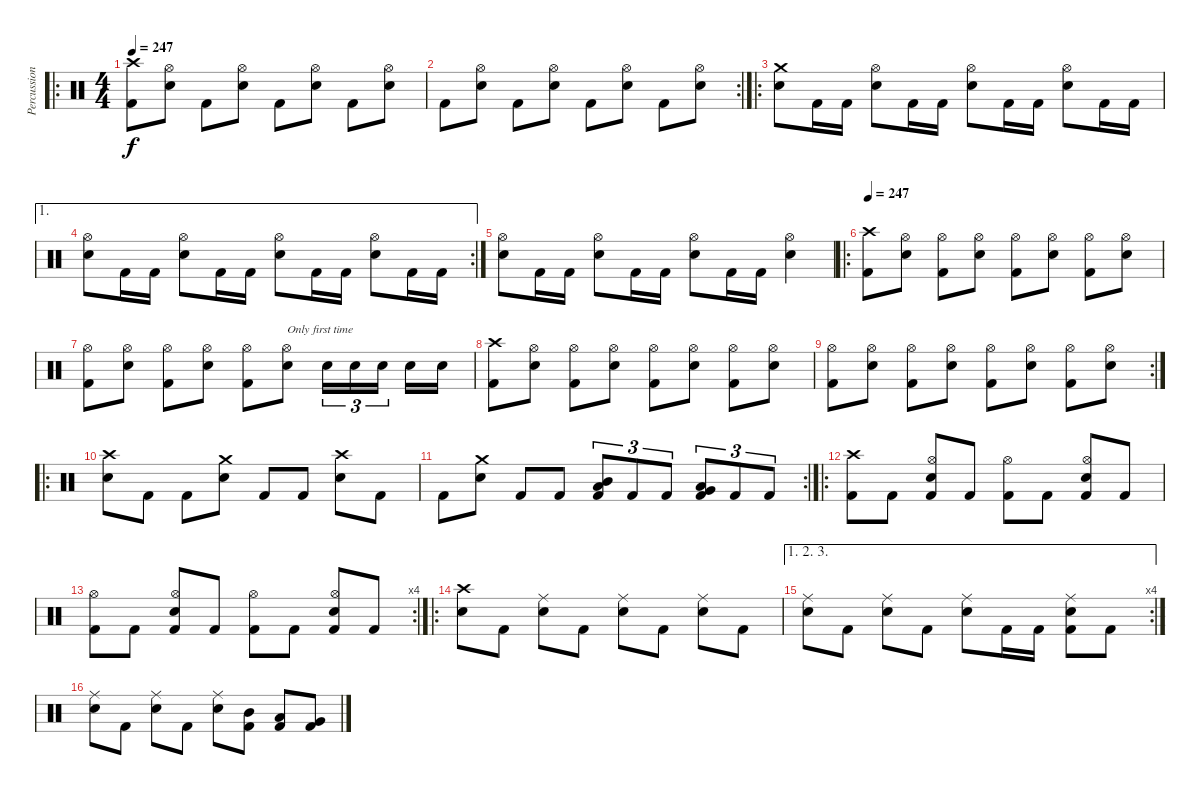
\track ("Percussion" "Percussion") {instrument percussion}
\staff {score}
\articulation defaults
\ro
\ts (4 4)
\tempo 247
\clef neutral
\ks c
("Crash high (hit)" "Kick (hit) 2").8{dy f} ("Hi-Hat (open)" "Snare (hit) 2").8 "Kick (hit) 2".8 ("Hi-Hat (open)" "Snare (hit) 2").8 "Kick (hit) 2".8 ("Hi-Hat (open)" "Snare (hit) 2").8 "Kick (hit) 2".8 ("Hi-Hat (open)" "Snare (hit) 2").8 |
\rc 2 "Kick (hit) 2".8
("Hi-Hat (open)" "Snare (hit) 2").8 "Kick (hit) 2".8 ("Hi-Hat (open)" "Snare (hit) 2").8 "Kick (hit) 2".8 ("Hi-Hat (open)" "Snare (hit) 2").8 "Kick (hit) 2".8 ("Hi-Hat (open)" "Snare (hit) 2").8 |
\ro
("Crash medium (hit)" "Snare (hit) 2").8 "Kick (hit) 2".16 "Kick (hit) 2".16 ("Hi-Hat (open)" "Snare (hit) 2").8 "Kick (hit) 2".16 "Kick (hit) 2".16 ("Hi-Hat (open)" "Snare (hit) 2").8 "Kick (hit) 2".16 "Kick (hit) 2".16 ("Hi-Hat (open)" "Snare (hit) 2").8 "Kick (hit) 2".16 "Kick (hit) 2".16 |
\ae 1
\rc 2
("Hi-Hat (open)" "Snare (hit) 2").8 "Kick (hit) 2".16 "Kick (hit) 2".16 ("Hi-Hat (open)" "Snare (hit) 2").8 "Kick (hit) 2".16 "Kick (hit) 2".16 ("Hi-Hat (open)" "Snare (hit) 2").8 "Kick (hit) 2".16 "Kick (hit) 2".16 ("Hi-Hat (open)" "Snare (hit) 2").8 "Kick (hit) 2".16 "Kick (hit) 2".16 |
("Hi-Hat (open)" "Snare (hit) 2").8 "Kick (hit) 2".16 "Kick (hit) 2".16 ("Hi-Hat (open)" "Snare (hit) 2").8 "Kick (hit) 2".16 "Kick (hit) 2".16 ("Hi-Hat (open)" "Snare (hit) 2").8 "Kick (hit) 2".16 "Kick (hit) 2".16 ("Hi-Hat (open)" "Snare (hit) 2").4 |
\ro
\tempo 247
("Crash high (hit)" "Kick (hit) 2").8 ("Hi-Hat (open)" "Snare (hit) 2").8 ("Hi-Hat (open)" "Kick (hit) 2").8 ("Hi-Hat (open)" "Snare (hit) 2").8 ("Hi-Hat (open)" "Kick (hit) 2").8 ("Hi-Hat (open)" "Snare (hit) 2").8 ("Hi-Hat (open)" "Kick (hit) 2").8 ("Hi-Hat (open)" "Snare (hit) 2").8 |
("Hi-Hat (open)" "Kick (hit) 2").8 ("Hi-Hat (open)" "Snare (hit) 2").8 ("Hi-Hat (open)" "Kick (hit) 2").8 ("Hi-Hat (open)" "Snare (hit) 2").8 ("Hi-Hat (open)" "Kick (hit) 2").8 ("Hi-Hat (open)" "Snare (hit) 2").8{txt "Only first time"} "Snare (hit) 2".16{tu (3 2)} "Snare (hit) 2".16{tu (3 2)} "Snare (hit) 2".16{tu (3 2)} "Snare (hit) 2".16 "Snare (hit) 2".16 |
("Crash high (hit)" "Kick (hit) 2").8 ("Hi-Hat (open)" "Snare (hit) 2").8 ("Hi-Hat (open)" "Kick (hit) 2").8 ("Hi-Hat (open)" "Snare (hit) 2").8 ("Hi-Hat (open)" "Kick (hit) 2").8 ("Hi-Hat (open)" "Snare (hit) 2").8 ("Hi-Hat (open)" "Kick (hit) 2").8 ("Hi-Hat (open)" "Snare (hit) 2").8 |
\rc 2
("Hi-Hat (open)" "Kick (hit) 2").8 ("Hi-Hat (open)" "Snare (hit) 2").8 ("Hi-Hat (open)" "Kick (hit) 2").8 ("Hi-Hat (open)" "Snare (hit) 2").8 ("Hi-Hat (open)" "Kick (hit) 2").8 ("Hi-Hat (open)" "Snare (hit) 2").8 ("Hi-Hat (open)" "Kick (hit) 2").8 ("Hi-Hat (open)" "Snare (hit) 2").8 |
\ro
("Crash high (hit)" "Snare (hit) 2").8 "Kick (hit) 2".8 "Kick (hit) 2".8 ("Crash medium (hit)" "Snare (hit) 2").8 "Kick (hit) 2".8 "Kick (hit) 2".8 ("Crash high (hit)" "Snare (hit) 2").8 "Kick (hit) 2".8 |
\rc 2 "Kick (hit) 2".8
("Crash medium (hit)" "Snare (hit) 2").8 "Kick (hit) 2".8 "Kick (hit) 2".8 ("Low Tom (hit)" "Mid Tom (hit)" "Kick (hit) 2").8{tu (3 2)} "Kick (hit) 2".8{tu (3 2)} "Kick (hit) 2".8{tu (3 2)} ("Very Low Tom (hit)" "Low Tom (hit)" "Kick (hit) 2").8{tu (3 2)} "Kick (hit) 2".8{tu (3 2)} "Kick (hit) 2".8{tu (3 2)} |
\ro
("Crash high (hit)" "Kick (hit) 2").8 "Kick (hit) 2".8 ("Hi-Hat (open)" "Snare (hit) 2" "Kick (hit) 2").8 "Kick (hit) 2".8 ("Hi-Hat (open)" "Kick (hit) 2").8 "Kick (hit) 2".8 ("Hi-Hat (open)" "Snare (hit) 2" "Kick (hit) 2").8 "Kick (hit) 2".8 |
\rc 4
("Hi-Hat (open)" "Kick (hit) 2").8 "Kick (hit) 2".8 ("Hi-Hat (open)" "Snare (hit) 2" "Kick (hit) 2").8 "Kick (hit) 2".8 ("Hi-Hat (open)" "Kick (hit) 2").8 "Kick (hit) 2".8 ("Hi-Hat (open)" "Snare (hit) 2" "Kick (hit) 2").8 "Kick (hit) 2".8 |
\ro
("Crash high (hit)" "Snare (hit) 2").8 "Kick (hit) 2".8 ("Ride (middle)" "Snare (hit) 2").8 "Kick (hit) 2".8 ("Ride (middle)" "Snare (hit) 2").8 "Kick (hit) 2".8 ("Ride (middle)" "Snare (hit) 2").8 "Kick (hit) 2".8 |
\ae (1 2 3)
\rc 4
("Ride (middle)" "Snare (hit) 2").8 "Kick (hit) 2".8 ("Ride (middle)" "Snare (hit) 2").8 "Kick (hit) 2".8 ("Ride (middle)" "Snare (hit) 2").8 "Kick (hit) 2".16 "Kick (hit) 2".16 ("Ride (middle)" "Snare (hit) 2" "Kick (hit) 2").8 "Kick (hit) 2".8 |
("Ride (middle)" "Snare (hit) 2").8 "Kick (hit) 2".8 ("Ride (middle)" "Snare (hit) 2").8 "Kick (hit) 2".8 ("Ride (middle)" "Snare (hit) 2").8 ("Mid Tom (hit)" "Kick (hit) 2").8 ("Low Tom (hit)" "Kick (hit) 2").8 ("Very Low Tom (hit)" "Kick (hit) 2").8
